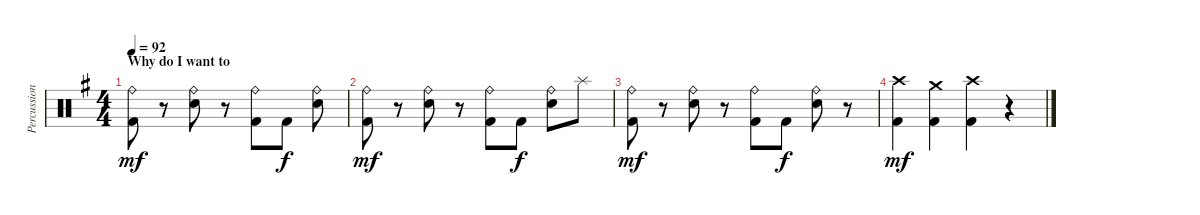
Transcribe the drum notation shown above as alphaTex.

\track ("Percussion" "Percussion") {instrument percussion}
\staff {score}
\articulation defaults
\ts (4 4)
\section ("" "Why do I want to")
\tempo 92
\clef neutral
\ks eminor
("Ride (bell)" "Kick (hit) 2").8{dy mf} r.8 ("Ride (bell)" "Electric Snare (hit)").8 r.8 ("Ride (bell)" "Kick (hit) 2").8 "Kick (hit) 2".8{dy f} ("Ride (bell)" "Electric Snare (hit)").8 |
("Ride (bell)" "Kick (hit) 2").8{dy mf} r.8 ("Ride (bell)" "Electric Snare (hit)").8 r.8 ("Ride (bell)" "Kick (hit) 2").8 "Kick (hit) 2".8{dy f} ("Ride (bell)" "Electric Snare (hit)").8 "Splash (hit)".8 |
("Ride (bell)" "Kick (hit) 2").8{dy mf} r.8 ("Ride (bell)" "Electric Snare (hit)").8 r.8 ("Ride (bell)" "Kick (hit) 2").8 "Kick (hit) 2".8{dy f} ("Ride (bell)" "Electric Snare (hit)").8 r.8 |
("Crash high (hit)" "Kick (hit) 2").4{dy mf} ("Crash medium (hit)" "Kick (hit) 2").4 ("Crash high (hit)" "Kick (hit) 2").4 r.4
